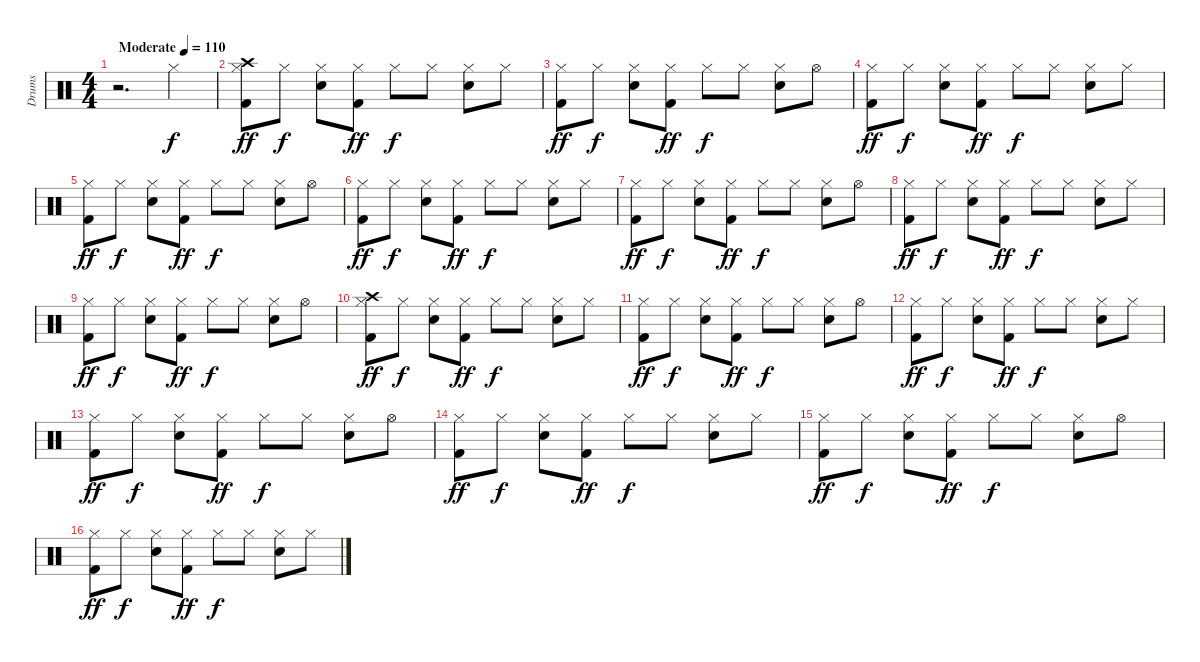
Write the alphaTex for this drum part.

\track ("Drums" "Drums") {instrument percussion}
\staff {score}
\articulation defaults
\ts (4 4)
\tempo (110 "Moderate")
\clef neutral
\ks c
r.2{d dy f} "Hi-Hat (closed)".4 |
("Kick (hit) 2" "Hi-Hat (closed)" "Crash high (hit)").8{dy ff} "Hi-Hat (closed)".8{dy f} ("Snare (hit) 2" "Hi-Hat (closed)").8 ("Kick (hit) 2" "Hi-Hat (closed)").8{dy ff} "Hi-Hat (closed)".8{dy f} "Hi-Hat (closed)".8 ("Snare (hit) 2" "Hi-Hat (closed)").8 "Hi-Hat (closed)".8 |
("Kick (hit) 2" "Hi-Hat (closed)").8{dy ff} "Hi-Hat (closed)".8{dy f} ("Snare (hit) 2" "Hi-Hat (closed)").8 ("Kick (hit) 2" "Hi-Hat (closed)").8{dy ff} "Hi-Hat (closed)".8{dy f} "Hi-Hat (closed)".8 ("Snare (hit) 2" "Hi-Hat (closed)").8 "Hi-Hat (open)".8 |
("Kick (hit) 2" "Hi-Hat (closed)").8{dy ff} "Hi-Hat (closed)".8{dy f} ("Snare (hit) 2" "Hi-Hat (closed)").8 ("Kick (hit) 2" "Hi-Hat (closed)").8{dy ff} "Hi-Hat (closed)".8{dy f} "Hi-Hat (closed)".8 ("Snare (hit) 2" "Hi-Hat (closed)").8 "Hi-Hat (closed)".8 |
("Kick (hit) 2" "Hi-Hat (closed)").8{dy ff} "Hi-Hat (closed)".8{dy f} ("Snare (hit) 2" "Hi-Hat (closed)").8 ("Kick (hit) 2" "Hi-Hat (closed)").8{dy ff} "Hi-Hat (closed)".8{dy f} "Hi-Hat (closed)".8 ("Snare (hit) 2" "Hi-Hat (closed)").8 "Hi-Hat (open)".8 |
("Kick (hit) 2" "Hi-Hat (closed)").8{dy ff} "Hi-Hat (closed)".8{dy f} ("Snare (hit) 2" "Hi-Hat (closed)").8 ("Kick (hit) 2" "Hi-Hat (closed)").8{dy ff} "Hi-Hat (closed)".8{dy f} "Hi-Hat (closed)".8 ("Snare (hit) 2" "Hi-Hat (closed)").8 "Hi-Hat (closed)".8 |
("Kick (hit) 2" "Hi-Hat (closed)").8{dy ff} "Hi-Hat (closed)".8{dy f} ("Snare (hit) 2" "Hi-Hat (closed)").8 ("Kick (hit) 2" "Hi-Hat (closed)").8{dy ff} "Hi-Hat (closed)".8{dy f} "Hi-Hat (closed)".8 ("Snare (hit) 2" "Hi-Hat (closed)").8 "Hi-Hat (open)".8 |
("Kick (hit) 2" "Hi-Hat (closed)").8{dy ff} "Hi-Hat (closed)".8{dy f} ("Snare (hit) 2" "Hi-Hat (closed)").8 ("Kick (hit) 2" "Hi-Hat (closed)").8{dy ff} "Hi-Hat (closed)".8{dy f} "Hi-Hat (closed)".8 ("Snare (hit) 2" "Hi-Hat (closed)").8 "Hi-Hat (closed)".8 |
("Kick (hit) 2" "Hi-Hat (closed)").8{dy ff} "Hi-Hat (closed)".8{dy f} ("Snare (hit) 2" "Hi-Hat (closed)").8 ("Kick (hit) 2" "Hi-Hat (closed)").8{dy ff} "Hi-Hat (closed)".8{dy f} "Hi-Hat (closed)".8 ("Snare (hit) 2" "Hi-Hat (closed)").8 "Hi-Hat (open)".8 |
("Kick (hit) 2" "Hi-Hat (closed)" "Crash high (hit)").8{dy ff} "Hi-Hat (closed)".8{dy f} ("Snare (hit) 2" "Hi-Hat (closed)").8 ("Kick (hit) 2" "Hi-Hat (closed)").8{dy ff} "Hi-Hat (closed)".8{dy f} "Hi-Hat (closed)".8 ("Snare (hit) 2" "Hi-Hat (closed)").8 "Hi-Hat (closed)".8 |
("Kick (hit) 2" "Hi-Hat (closed)").8{dy ff} "Hi-Hat (closed)".8{dy f} ("Snare (hit) 2" "Hi-Hat (closed)").8 ("Kick (hit) 2" "Hi-Hat (closed)").8{dy ff} "Hi-Hat (closed)".8{dy f} "Hi-Hat (closed)".8 ("Snare (hit) 2" "Hi-Hat (closed)").8 "Hi-Hat (open)".8 |
("Kick (hit) 2" "Hi-Hat (closed)").8{dy ff} "Hi-Hat (closed)".8{dy f} ("Snare (hit) 2" "Hi-Hat (closed)").8 ("Kick (hit) 2" "Hi-Hat (closed)").8{dy ff} "Hi-Hat (closed)".8{dy f} "Hi-Hat (closed)".8 ("Snare (hit) 2" "Hi-Hat (closed)").8 "Hi-Hat (closed)".8 |
("Kick (hit) 2" "Hi-Hat (closed)").8{dy ff} "Hi-Hat (closed)".8{dy f} ("Snare (hit) 2" "Hi-Hat (closed)").8 ("Kick (hit) 2" "Hi-Hat (closed)").8{dy ff} "Hi-Hat (closed)".8{dy f} "Hi-Hat (closed)".8 ("Snare (hit) 2" "Hi-Hat (closed)").8 "Hi-Hat (open)".8 |
("Kick (hit) 2" "Hi-Hat (closed)").8{dy ff} "Hi-Hat (closed)".8{dy f} ("Snare (hit) 2" "Hi-Hat (closed)").8 ("Kick (hit) 2" "Hi-Hat (closed)").8{dy ff} "Hi-Hat (closed)".8{dy f} "Hi-Hat (closed)".8 ("Snare (hit) 2" "Hi-Hat (closed)").8 "Hi-Hat (closed)".8 |
("Kick (hit) 2" "Hi-Hat (closed)").8{dy ff} "Hi-Hat (closed)".8{dy f} ("Snare (hit) 2" "Hi-Hat (closed)").8 ("Kick (hit) 2" "Hi-Hat (closed)").8{dy ff} "Hi-Hat (closed)".8{dy f} "Hi-Hat (closed)".8 ("Snare (hit) 2" "Hi-Hat (closed)").8 "Hi-Hat (open)".8 |
("Kick (hit) 2" "Hi-Hat (closed)").8{dy ff} "Hi-Hat (closed)".8{dy f} ("Snare (hit) 2" "Hi-Hat (closed)").8 ("Kick (hit) 2" "Hi-Hat (closed)").8{dy ff} "Hi-Hat (closed)".8{dy f} "Hi-Hat (closed)".8 ("Snare (hit) 2" "Hi-Hat (closed)").8 "Hi-Hat (closed)".8
